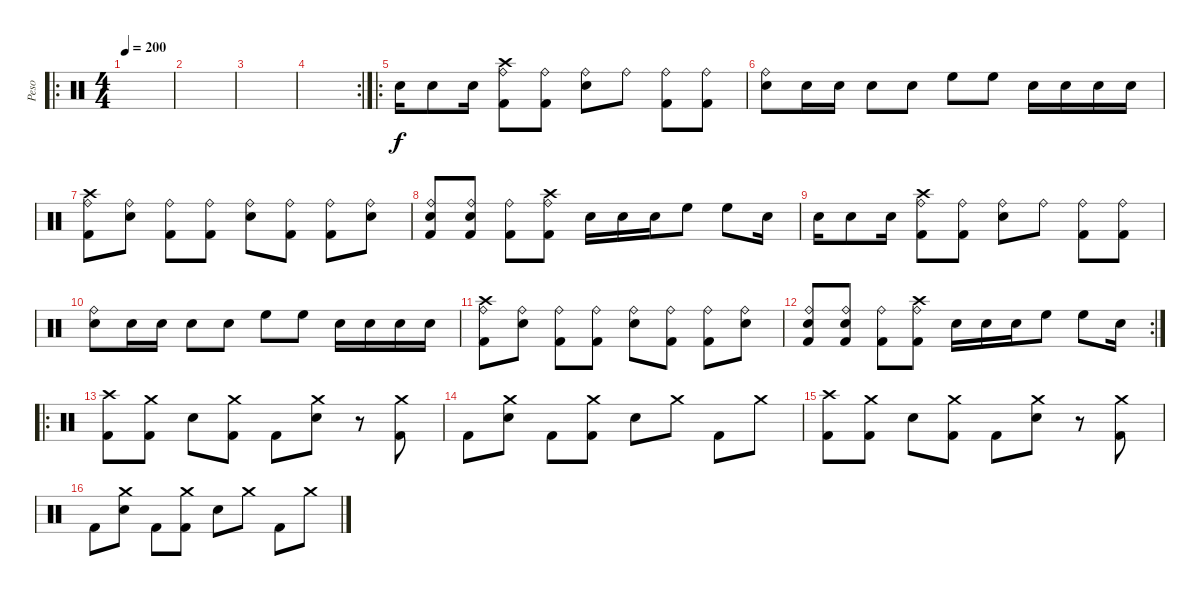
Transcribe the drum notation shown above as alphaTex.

\track ("Peso" "Peso") {instrument percussion}
\staff {score}
\articulation defaults
\ro
\ts (4 4)
\tempo 200
\clef neutral
\ks c
|
|
|
\rc 2
|
\ro "Snare (hit) 2".16 "Snare (hit) 2".8 "Snare (hit)"{x}.16
("Crash high (hit)" "Ride (bell)" "Kick (hit) 2").8 ("Ride (bell)" "Kick (hit) 2").8 ("Ride (bell)" "Snare (hit) 2").8 "Ride (bell)".8 ("Ride (bell)" "Kick (hit) 2").8 ("Ride (bell)" "Kick (hit) 2").8 |
("Ride (bell)" "Snare (hit) 2").8 "Snare (hit) 2".16 "Snare (hit) 2".16 "Snare (hit) 2".8 "Snare (hit) 2".8 "High Floor Tom (hit)".8 "High Floor Tom (hit)".8 "Snare (hit) 2".16 "Snare (hit) 2".16 "Snare (hit) 2".16 "Snare (hit) 2".16 |
("Crash high (hit)" "Ride (bell)" "Kick (hit) 2").8 ("Ride (bell)" "Snare (hit) 2").8 ("Ride (bell)" "Kick (hit) 2").8 ("Ride (bell)" "Kick (hit) 2").8 ("Ride (bell)" "Snare (hit) 2").8 ("Ride (bell)" "Kick (hit) 2").8 ("Ride (bell)" "Kick (hit) 2").8 ("Ride (bell)" "Snare (hit) 2").8 |
("Ride (bell)" "Snare (hit) 2" "Kick (hit) 2").8 ("Ride (bell)" "Snare (hit) 2" "Kick (hit) 2").8 ("Ride (bell)" "Kick (hit) 2").8 ("Crash high (hit)" "Ride (bell)" "Kick (hit) 2").8 "Snare (hit) 2".16 "Snare (hit) 2".16 "Snare (hit) 2".16 "High Floor Tom (hit)".8 "High Floor Tom (hit)".8 "Snare (hit) 2".16 |
"Snare (hit) 2".16 "Snare (hit) 2".8 "Snare (hit)"{x}.16 ("Crash high (hit)" "Ride (bell)" "Kick (hit) 2").8 ("Ride (bell)" "Kick (hit) 2").8 ("Ride (bell)" "Snare (hit) 2").8 "Ride (bell)".8 ("Ride (bell)" "Kick (hit) 2").8 ("Ride (bell)" "Kick (hit) 2").8 |
("Ride (bell)" "Snare (hit) 2").8 "Snare (hit) 2".16 "Snare (hit) 2".16 "Snare (hit) 2".8 "Snare (hit) 2".8 "High Floor Tom (hit)".8 "High Floor Tom (hit)".8 "Snare (hit) 2".16 "Snare (hit) 2".16 "Snare (hit) 2".16 "Snare (hit) 2".16 |
("Crash high (hit)" "Ride (bell)" "Kick (hit) 2").8 ("Ride (bell)" "Snare (hit) 2").8 ("Ride (bell)" "Kick (hit) 2").8 ("Ride (bell)" "Kick (hit) 2").8 ("Ride (bell)" "Snare (hit) 2").8 ("Ride (bell)" "Kick (hit) 2").8 ("Ride (bell)" "Kick (hit) 2").8 ("Ride (bell)" "Snare (hit) 2").8 |
\rc 2
("Ride (bell)" "Snare (hit) 2" "Kick (hit) 2").8 ("Ride (bell)" "Snare (hit) 2" "Kick (hit) 2").8 ("Ride (bell)" "Kick (hit) 2").8 ("Crash high (hit)" "Ride (bell)" "Kick (hit) 2").8 "Snare (hit) 2".16 "Snare (hit) 2".16 "Snare (hit) 2".16 "High Floor Tom (hit)".8 "High Floor Tom (hit)".8 "Snare (hit) 2".16 |
\ro
("Crash high (hit)" "Kick (hit) 2").8 ("Crash medium (hit)" "Kick (hit) 2").8 "Snare (hit) 2".8 ("Crash medium (hit)" "Kick (hit) 2").8 "Kick (hit) 2".8 ("Crash medium (hit)" "Snare (hit) 2").8 r.8 ("Crash medium (hit)" "Kick (hit) 2").8 |
"Kick (hit) 2".8 ("Crash medium (hit)" "Snare (hit) 2").8 "Kick (hit) 2".8 ("Crash medium (hit)" "Kick (hit) 2").8 "Snare (hit) 2".8 "Crash medium (hit)".8 "Kick (hit) 2".8 "Crash medium (hit)".8 |
("Crash high (hit)" "Kick (hit) 2").8 ("Crash medium (hit)" "Kick (hit) 2").8 "Snare (hit) 2".8 ("Crash medium (hit)" "Kick (hit) 2").8 "Kick (hit) 2".8 ("Crash medium (hit)" "Snare (hit) 2").8 r.8 ("Crash medium (hit)" "Kick (hit) 2").8 |
"Kick (hit) 2".8 ("Crash medium (hit)" "Snare (hit) 2").8 "Kick (hit) 2".8 ("Crash medium (hit)" "Kick (hit) 2").8 "Snare (hit) 2".8 "Crash medium (hit)".8 "Kick (hit) 2".8 "Crash medium (hit)".8
